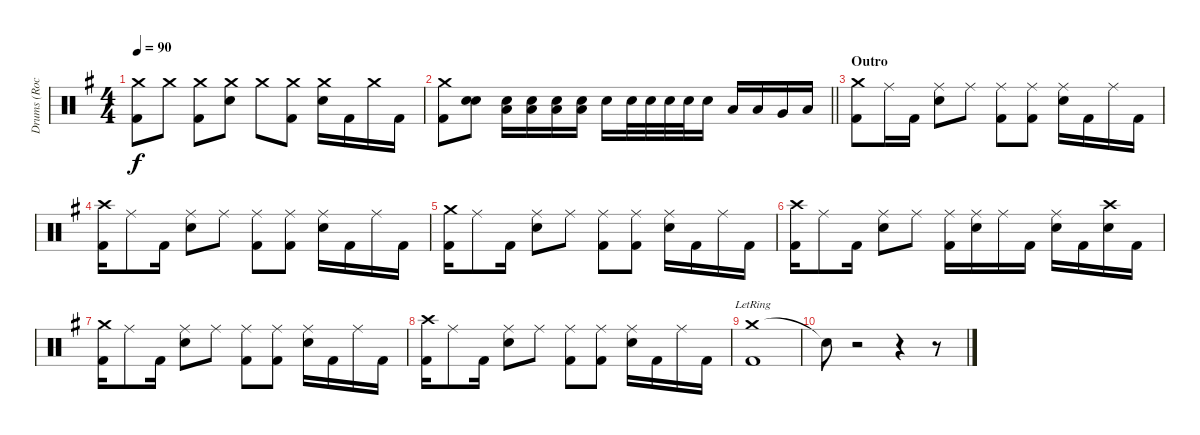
\track ("Drums (Rocky Grey)" "Drums (Roc") {instrument percussion}
\staff {score}
\articulation defaults
\ts (4 4)
\tempo 90
\clef neutral
\ks g
("Crash medium (hit)" "Kick (hit) 2").8{dy f} "Crash medium (hit)".8 ("Crash medium (hit)" "Kick (hit) 2").8 ("Crash medium (hit)" "Snare (hit) 2").8 "Crash medium (hit)".8 ("Crash medium (hit)" "Kick (hit) 2").8 ("Crash medium (hit)" "Snare (hit) 2").16 "Kick (hit) 2".16 "Crash medium (hit)".16 "Kick (hit) 2".16 |
\barLineRight lightlight
("Crash medium (hit)" "Kick (hit) 2").8 ("Snare (hit) 2" "Snare (hit) 2").8 ("Snare (hit) 2" "Low Floor Tom (hit)").16 ("Snare (hit) 2" "Low Floor Tom (hit)").16 ("Snare (hit) 2" "Low Floor Tom (hit)").16 ("Snare (hit) 2" "Low Floor Tom (hit)").16 "Snare (hit) 2".16 "Snare (hit) 2".32 "Snare (hit) 2".32 "Snare (hit) 2".32 "Snare (hit) 2".32 "Snare (hit) 2".16 "Low Tom (hit)".16 "Low Tom (hit)".16 "Very Low Tom (hit)".16 "Low Floor Tom (hit)".16 |
\section ("" "Outro")
("Crash medium (hit)" "Kick (hit) 2").8 "Ride (middle)".16 "Kick (hit) 2".16 ("Ride (middle)" "Snare (hit) 2").8 "Ride (middle)".8 ("Ride (middle)" "Kick (hit) 2").8 ("Ride (middle)" "Kick (hit) 2").8 ("Ride (middle)" "Snare (hit) 2").16 "Kick (hit) 2".16 "Ride (middle)".16 "Kick (hit) 2".16 |
("Crash high (hit)" "Kick (hit) 2").16 "Ride (middle)".8 "Kick (hit) 2".16 ("Ride (middle)" "Snare (hit) 2").8 "Ride (middle)".8 ("Ride (middle)" "Kick (hit) 2").8 ("Ride (middle)" "Kick (hit) 2").8 ("Ride (middle)" "Snare (hit) 2").16 "Kick (hit) 2".16 "Ride (middle)".16 "Kick (hit) 2".16 |
("Crash medium (hit)" "Kick (hit) 2").16 "Ride (middle)".8 "Kick (hit) 2".16 ("Ride (middle)" "Snare (hit) 2").8 "Ride (middle)".8 ("Ride (middle)" "Kick (hit) 2").8 ("Ride (middle)" "Kick (hit) 2").8 ("Ride (middle)" "Snare (hit) 2").16 "Kick (hit) 2".16 "Ride (middle)".16 "Kick (hit) 2".16 |
("Crash high (hit)" "Kick (hit) 2").16 "Ride (middle)".8 "Kick (hit) 2".16 ("Ride (middle)" "Snare (hit) 2").8 "Ride (middle)".8 ("Ride (middle)" "Kick (hit) 2").16 ("Ride (middle)" "Snare (hit) 2").16 "Ride (middle)".16 "Kick (hit) 2".16 ("Ride (middle)" "Snare (hit) 2").16 "Kick (hit) 2".16 ("Crash high (hit)" "Snare (hit) 2").16 "Kick (hit) 2".16 |
("Crash medium (hit)" "Kick (hit) 2").16 "Ride (middle)".8 "Kick (hit) 2".16 ("Ride (middle)" "Snare (hit) 2").8 "Ride (middle)".8 ("Ride (middle)" "Kick (hit) 2").8 ("Ride (middle)" "Kick (hit) 2").8 ("Ride (middle)" "Snare (hit) 2").16 "Kick (hit) 2".16 "Ride (middle)".16 "Kick (hit) 2".16 |
("Crash high (hit)" "Kick (hit) 2").16 "Ride (middle)".8 "Kick (hit) 2".16 ("Ride (middle)" "Snare (hit) 2").8 "Ride (middle)".8 ("Ride (middle)" "Kick (hit) 2").8 ("Ride (middle)" "Kick (hit) 2").8 ("Ride (middle)" "Snare (hit) 2").16 "Kick (hit) 2".16 "Ride (middle)".16 "Kick (hit) 2".16 |
("Crash medium (hit)"{lr} "Kick (hit) 2").1 |
"Snare (hit)"{t}.8 r.2 r.4 r.8
